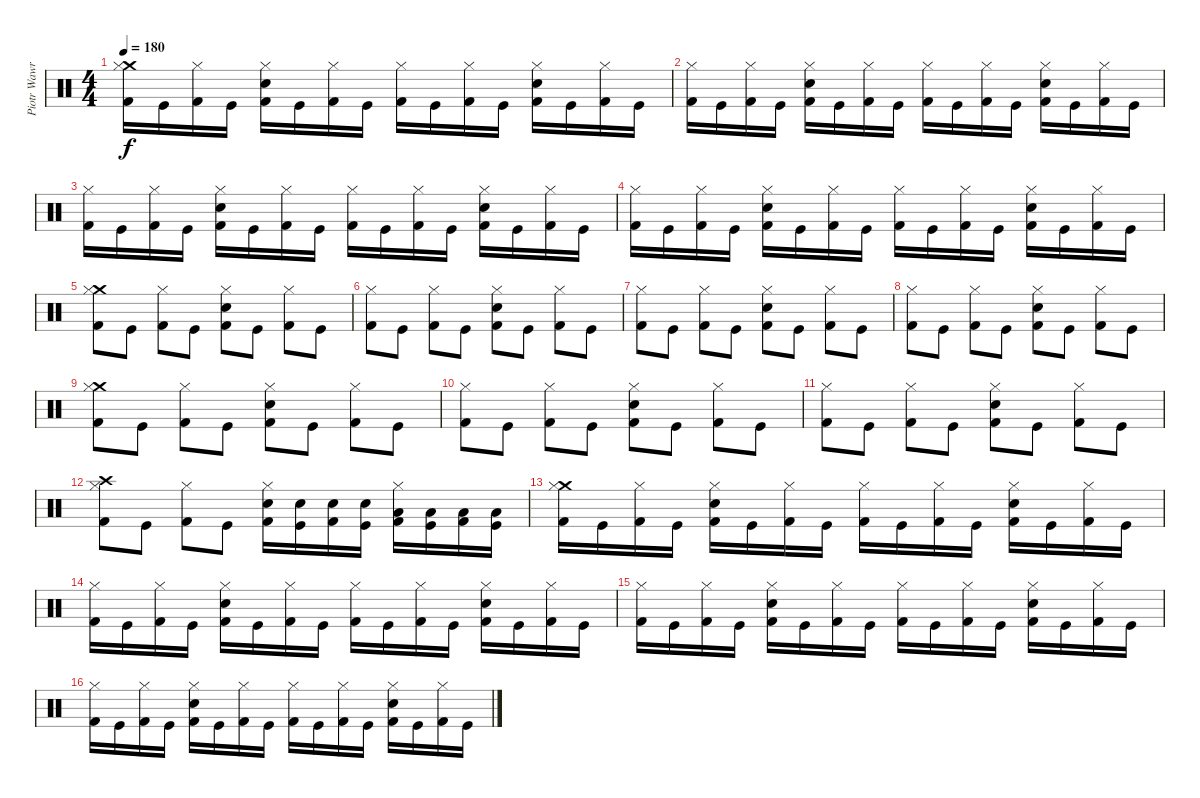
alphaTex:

\track ("Piotr Wawrzeniuk" "Piotr Wawr") {instrument percussion}
\staff {score}
\articulation defaults
\ts (4 4)
\tempo 180
\clef neutral
\ks c
("Crash medium (hit)" "Hi-Hat (closed)" "Kick (hit) 2").16{dy f} "Kick (hit)".16 ("Hi-Hat (closed)" "Kick (hit) 2").16 "Kick (hit)".16 ("Snare (hit) 2" "Hi-Hat (closed)" "Kick (hit) 2").16 "Kick (hit)".16 ("Hi-Hat (closed)" "Kick (hit) 2").16 "Kick (hit)".16 ("Hi-Hat (closed)" "Kick (hit) 2").16 "Kick (hit)".16 ("Hi-Hat (closed)" "Kick (hit) 2").16 "Kick (hit)".16 ("Snare (hit) 2" "Hi-Hat (closed)" "Kick (hit) 2").16 "Kick (hit)".16 ("Hi-Hat (closed)" "Kick (hit) 2").16 "Kick (hit)".16 |
("Hi-Hat (closed)" "Kick (hit) 2").16 "Kick (hit)".16 ("Hi-Hat (closed)" "Kick (hit) 2").16 "Kick (hit)".16 ("Snare (hit) 2" "Hi-Hat (closed)" "Kick (hit) 2").16 "Kick (hit)".16 ("Hi-Hat (closed)" "Kick (hit) 2").16 "Kick (hit)".16 ("Hi-Hat (closed)" "Kick (hit) 2").16 "Kick (hit)".16 ("Hi-Hat (closed)" "Kick (hit) 2").16 "Kick (hit)".16 ("Snare (hit) 2" "Hi-Hat (closed)" "Kick (hit) 2").16 "Kick (hit)".16 ("Hi-Hat (closed)" "Kick (hit) 2").16 "Kick (hit)".16 |
("Hi-Hat (closed)" "Kick (hit) 2").16 "Kick (hit)".16 ("Hi-Hat (closed)" "Kick (hit) 2").16 "Kick (hit)".16 ("Snare (hit) 2" "Hi-Hat (closed)" "Kick (hit) 2").16 "Kick (hit)".16 ("Hi-Hat (closed)" "Kick (hit) 2").16 "Kick (hit)".16 ("Hi-Hat (closed)" "Kick (hit) 2").16 "Kick (hit)".16 ("Hi-Hat (closed)" "Kick (hit) 2").16 "Kick (hit)".16 ("Snare (hit) 2" "Hi-Hat (closed)" "Kick (hit) 2").16 "Kick (hit)".16 ("Hi-Hat (closed)" "Kick (hit) 2").16 "Kick (hit)".16 |
("Hi-Hat (closed)" "Kick (hit) 2").16 "Kick (hit)".16 ("Hi-Hat (closed)" "Kick (hit) 2").16 "Kick (hit)".16 ("Snare (hit) 2" "Hi-Hat (closed)" "Kick (hit) 2").16 "Kick (hit)".16 ("Hi-Hat (closed)" "Kick (hit) 2").16 "Kick (hit)".16 ("Hi-Hat (closed)" "Kick (hit) 2").16 "Kick (hit)".16 ("Hi-Hat (closed)" "Kick (hit) 2").16 "Kick (hit)".16 ("Snare (hit) 2" "Hi-Hat (closed)" "Kick (hit) 2").16 "Kick (hit)".16 ("Hi-Hat (closed)" "Kick (hit) 2").16 "Kick (hit)".16 |
("Crash medium (hit)" "Hi-Hat (closed)" "Kick (hit) 2").8 "Kick (hit)".8 ("Hi-Hat (closed)" "Kick (hit) 2").8 "Kick (hit)".8 ("Snare (hit) 2" "Hi-Hat (closed)" "Kick (hit) 2").8 "Kick (hit)".8 ("Hi-Hat (closed)" "Kick (hit) 2").8 "Kick (hit)".8 |
("Hi-Hat (closed)" "Kick (hit) 2").8 "Kick (hit)".8 ("Hi-Hat (closed)" "Kick (hit) 2").8 "Kick (hit)".8 ("Snare (hit) 2" "Hi-Hat (closed)" "Kick (hit) 2").8 "Kick (hit)".8 ("Hi-Hat (closed)" "Kick (hit) 2").8 "Kick (hit)".8 |
("Hi-Hat (closed)" "Kick (hit) 2").8 "Kick (hit)".8 ("Hi-Hat (closed)" "Kick (hit) 2").8 "Kick (hit)".8 ("Snare (hit) 2" "Hi-Hat (closed)" "Kick (hit) 2").8 "Kick (hit)".8 ("Hi-Hat (closed)" "Kick (hit) 2").8 "Kick (hit)".8 |
("Hi-Hat (closed)" "Kick (hit) 2").8 "Kick (hit)".8 ("Hi-Hat (closed)" "Kick (hit) 2").8 "Kick (hit)".8 ("Snare (hit) 2" "Hi-Hat (closed)" "Kick (hit) 2").8 "Kick (hit)".8 ("Hi-Hat (closed)" "Kick (hit) 2").8 "Kick (hit)".8 |
("Crash medium (hit)" "Hi-Hat (closed)" "Kick (hit) 2").8 "Kick (hit)".8 ("Hi-Hat (closed)" "Kick (hit) 2").8 "Kick (hit)".8 ("Snare (hit) 2" "Hi-Hat (closed)" "Kick (hit) 2").8 "Kick (hit)".8 ("Hi-Hat (closed)" "Kick (hit) 2").8 "Kick (hit)".8 |
("Hi-Hat (closed)" "Kick (hit) 2").8 "Kick (hit)".8 ("Hi-Hat (closed)" "Kick (hit) 2").8 "Kick (hit)".8 ("Snare (hit) 2" "Hi-Hat (closed)" "Kick (hit) 2").8 "Kick (hit)".8 ("Hi-Hat (closed)" "Kick (hit) 2").8 "Kick (hit)".8 |
("Hi-Hat (closed)" "Kick (hit) 2").8 "Kick (hit)".8 ("Hi-Hat (closed)" "Kick (hit) 2").8 "Kick (hit)".8 ("Snare (hit) 2" "Hi-Hat (closed)" "Kick (hit) 2").8 "Kick (hit)".8 ("Hi-Hat (closed)" "Kick (hit) 2").8 "Kick (hit)".8 |
("Crash high (hit)" "Hi-Hat (closed)" "Kick (hit) 2").8 "Kick (hit)".8 ("Hi-Hat (closed)" "Kick (hit) 2").8 "Kick (hit)".8 ("Snare (hit) 2" "Hi-Hat (closed)" "Kick (hit) 2").16 ("Snare (hit) 2" "Kick (hit)").16 ("Snare (hit) 2" "Kick (hit) 2").16 ("Snare (hit) 2" "Kick (hit)").16 ("Low Tom (hit)" "Hi-Hat (closed)" "Kick (hit) 2").16 ("Low Tom (hit)" "Kick (hit)").16 ("Low Tom (hit)" "Kick (hit) 2").16 ("Low Tom (hit)" "Kick (hit)").16 |
("Crash medium (hit)" "Hi-Hat (closed)" "Kick (hit) 2").16 "Kick (hit)".16 ("Hi-Hat (closed)" "Kick (hit) 2").16 "Kick (hit)".16 ("Snare (hit) 2" "Hi-Hat (closed)" "Kick (hit) 2").16 "Kick (hit)".16 ("Hi-Hat (closed)" "Kick (hit) 2").16 "Kick (hit)".16 ("Hi-Hat (closed)" "Kick (hit) 2").16 "Kick (hit)".16 ("Hi-Hat (closed)" "Kick (hit) 2").16 "Kick (hit)".16 ("Snare (hit) 2" "Hi-Hat (closed)" "Kick (hit) 2").16 "Kick (hit)".16 ("Hi-Hat (closed)" "Kick (hit) 2").16 "Kick (hit)".16 |
("Hi-Hat (closed)" "Kick (hit) 2").16 "Kick (hit)".16 ("Hi-Hat (closed)" "Kick (hit) 2").16 "Kick (hit)".16 ("Snare (hit) 2" "Hi-Hat (closed)" "Kick (hit) 2").16 "Kick (hit)".16 ("Hi-Hat (closed)" "Kick (hit) 2").16 "Kick (hit)".16 ("Hi-Hat (closed)" "Kick (hit) 2").16 "Kick (hit)".16 ("Hi-Hat (closed)" "Kick (hit) 2").16 "Kick (hit)".16 ("Snare (hit) 2" "Hi-Hat (closed)" "Kick (hit) 2").16 "Kick (hit)".16 ("Hi-Hat (closed)" "Kick (hit) 2").16 "Kick (hit)".16 |
("Hi-Hat (closed)" "Kick (hit) 2").16 "Kick (hit)".16 ("Hi-Hat (closed)" "Kick (hit) 2").16 "Kick (hit)".16 ("Snare (hit) 2" "Hi-Hat (closed)" "Kick (hit) 2").16 "Kick (hit)".16 ("Hi-Hat (closed)" "Kick (hit) 2").16 "Kick (hit)".16 ("Hi-Hat (closed)" "Kick (hit) 2").16 "Kick (hit)".16 ("Hi-Hat (closed)" "Kick (hit) 2").16 "Kick (hit)".16 ("Snare (hit) 2" "Hi-Hat (closed)" "Kick (hit) 2").16 "Kick (hit)".16 ("Hi-Hat (closed)" "Kick (hit) 2").16 "Kick (hit)".16 |
("Hi-Hat (closed)" "Kick (hit) 2").16 "Kick (hit)".16 ("Hi-Hat (closed)" "Kick (hit) 2").16 "Kick (hit)".16 ("Snare (hit) 2" "Hi-Hat (closed)" "Kick (hit) 2").16 "Kick (hit)".16 ("Hi-Hat (closed)" "Kick (hit) 2").16 "Kick (hit)".16 ("Hi-Hat (closed)" "Kick (hit) 2").16 "Kick (hit)".16 ("Hi-Hat (closed)" "Kick (hit) 2").16 "Kick (hit)".16 ("Snare (hit) 2" "Hi-Hat (closed)" "Kick (hit) 2").16 "Kick (hit)".16 ("Hi-Hat (closed)" "Kick (hit) 2").16 "Kick (hit)".16
